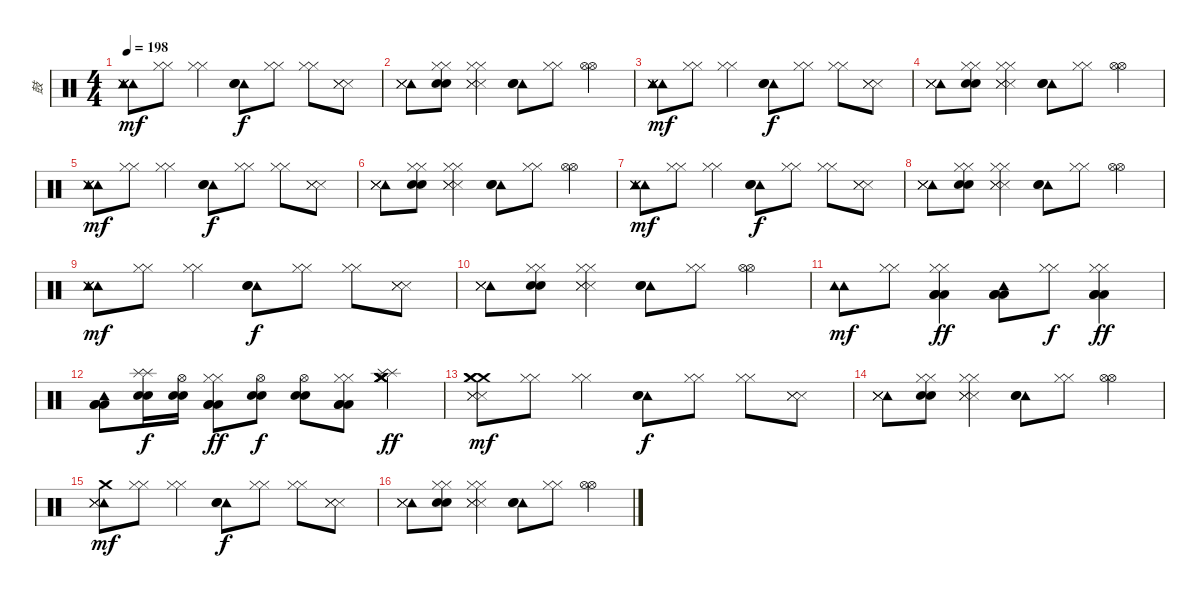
\track ("鼓" "鼓") {instrument percussion}
\staff {score}
\articulation defaults
\ts (4 4)
\tempo 198
\clef neutral
\ks c
("Tambourine (hit)" "Tambourine (hit)" "Metronome (hit)" "Metronome (hit)" "Metronome (hit)").8{dy mf} ("Hi-Hat (closed)" "Hi-Hat (closed)").8 ("Hi-Hat (closed)" "Hi-Hat (closed)").4 ("Tambourine (hit)" "Metronome (bell)" "Metronome (bell)").8{dy f} ("Hi-Hat (closed)" "Hi-Hat (closed)").8 ("Hi-Hat (closed)" "Hi-Hat (closed)").8 ("Metronome (hit)" "Metronome (hit)" "Metronome (hit)").8 |
("Tambourine (hit)" "Metronome (hit)" "Metronome (hit)" "Metronome (hit)").8 ("Hi-Hat (closed)" "Hi-Hat (closed)" "Metronome (bell)" "Metronome (bell)").8 ("Hi-Hat (closed)" "Hi-Hat (closed)" "Metronome (hit)" "Metronome (hit)" "Metronome (hit)").4 ("Tambourine (hit)" "Metronome (bell)" "Metronome (bell)").8 ("Hi-Hat (closed)" "Hi-Hat (closed)").8 ("Hi-Hat (open)" "Hi-Hat (open)").4 |
("Tambourine (hit)" "Tambourine (hit)" "Metronome (hit)" "Metronome (hit)" "Metronome (hit)").8{dy mf} ("Hi-Hat (closed)" "Hi-Hat (closed)").8 ("Hi-Hat (closed)" "Hi-Hat (closed)").4 ("Tambourine (hit)" "Metronome (bell)" "Metronome (bell)").8{dy f} ("Hi-Hat (closed)" "Hi-Hat (closed)").8 ("Hi-Hat (closed)" "Hi-Hat (closed)").8 ("Metronome (hit)" "Metronome (hit)" "Metronome (hit)").8 |
("Tambourine (hit)" "Metronome (hit)" "Metronome (hit)" "Metronome (hit)").8 ("Hi-Hat (closed)" "Hi-Hat (closed)" "Metronome (bell)" "Metronome (bell)").8 ("Hi-Hat (closed)" "Hi-Hat (closed)" "Metronome (hit)" "Metronome (hit)" "Metronome (hit)").4 ("Tambourine (hit)" "Metronome (bell)" "Metronome (bell)").8 ("Hi-Hat (closed)" "Hi-Hat (closed)").8 ("Hi-Hat (open)" "Hi-Hat (open)").4 |
("Tambourine (hit)" "Tambourine (hit)" "Metronome (hit)" "Metronome (hit)" "Metronome (hit)").8{dy mf} ("Hi-Hat (closed)" "Hi-Hat (closed)").8 ("Hi-Hat (closed)" "Hi-Hat (closed)").4 ("Tambourine (hit)" "Metronome (bell)" "Metronome (bell)").8{dy f} ("Hi-Hat (closed)" "Hi-Hat (closed)").8 ("Hi-Hat (closed)" "Hi-Hat (closed)").8 ("Metronome (hit)" "Metronome (hit)" "Metronome (hit)").8 |
("Tambourine (hit)" "Metronome (hit)" "Metronome (hit)" "Metronome (hit)").8 ("Hi-Hat (closed)" "Hi-Hat (closed)" "Metronome (bell)" "Metronome (bell)").8 ("Hi-Hat (closed)" "Hi-Hat (closed)" "Metronome (hit)" "Metronome (hit)" "Metronome (hit)").4 ("Tambourine (hit)" "Metronome (bell)" "Metronome (bell)").8 ("Hi-Hat (closed)" "Hi-Hat (closed)").8 ("Hi-Hat (open)" "Hi-Hat (open)").4 |
("Tambourine (hit)" "Tambourine (hit)" "Metronome (hit)" "Metronome (hit)" "Metronome (hit)").8{dy mf} ("Hi-Hat (closed)" "Hi-Hat (closed)").8 ("Hi-Hat (closed)" "Hi-Hat (closed)").4 ("Tambourine (hit)" "Metronome (bell)" "Metronome (bell)").8{dy f} ("Hi-Hat (closed)" "Hi-Hat (closed)").8 ("Hi-Hat (closed)" "Hi-Hat (closed)").8 ("Metronome (hit)" "Metronome (hit)" "Metronome (hit)").8 |
("Tambourine (hit)" "Metronome (hit)" "Metronome (hit)" "Metronome (hit)").8 ("Hi-Hat (closed)" "Hi-Hat (closed)" "Metronome (bell)" "Metronome (bell)").8 ("Hi-Hat (closed)" "Hi-Hat (closed)" "Metronome (hit)" "Metronome (hit)" "Metronome (hit)").4 ("Tambourine (hit)" "Metronome (bell)" "Metronome (bell)").8 ("Hi-Hat (closed)" "Hi-Hat (closed)").8 ("Hi-Hat (open)" "Hi-Hat (open)").4 |
("Tambourine (hit)" "Tambourine (hit)" "Metronome (hit)" "Metronome (hit)" "Metronome (hit)").8{dy mf} ("Hi-Hat (closed)" "Hi-Hat (closed)").8 ("Hi-Hat (closed)" "Hi-Hat (closed)").4 ("Tambourine (hit)" "Metronome (bell)" "Metronome (bell)").8{dy f} ("Hi-Hat (closed)" "Hi-Hat (closed)").8 ("Hi-Hat (closed)" "Hi-Hat (closed)").8 ("Metronome (hit)" "Metronome (hit)" "Metronome (hit)").8 |
("Tambourine (hit)" "Metronome (hit)" "Metronome (hit)" "Metronome (hit)").8 ("Hi-Hat (closed)" "Hi-Hat (closed)" "Metronome (bell)" "Metronome (bell)").8 ("Hi-Hat (closed)" "Hi-Hat (closed)" "Metronome (hit)" "Metronome (hit)" "Metronome (hit)").4 ("Tambourine (hit)" "Metronome (bell)" "Metronome (bell)").8 ("Hi-Hat (closed)" "Hi-Hat (closed)").8 ("Hi-Hat (open)" "Hi-Hat (open)").4 |
("Tambourine (hit)" "Tambourine (hit)").8{dy mf} ("Hi-Hat (closed)" "Hi-Hat (closed)").8 ("Hi-Hat (closed)" "Hi-Hat (closed)" "Low Tom (hit)" "Low Tom (hit)" "Low Tom (hit)").4{dy ff} ("Tambourine (hit)" "Low Tom (hit)" "Low Tom (hit)" "Low Tom (hit)").8 ("Hi-Hat (closed)" "Hi-Hat (closed)").8{dy f} ("Hi-Hat (closed)" "Hi-Hat (closed)" "Low Tom (hit)" "Low Tom (hit)" "Low Tom (hit)").4{dy ff} |
("Tambourine (hit)" "Low Tom (hit)" "Low Tom (hit)" "Low Tom (hit)").8 ("Splash (hit)" "Splash (hit)" "Metronome (bell)" "Metronome (bell)").16{dy f} ("Hi-Hat (open)" "Metronome (bell)" "Metronome (bell)").16 ("Hi-Hat (closed)" "Hi-Hat (closed)" "Low Tom (hit)" "Low Tom (hit)" "Low Tom (hit)").8{dy ff} ("Hi-Hat (open)" "Metronome (bell)" "Metronome (bell)").8{dy f} ("Hi-Hat (open)" "Metronome (bell)" "Metronome (bell)").8 ("Hi-Hat (closed)" "Hi-Hat (closed)" "Low Floor Tom (hit)" "Low Floor Tom (hit)" "Low Floor Tom (hit)").8 ("Crash medium (hit)" "Splash (hit)" "Splash (hit)" "Crash medium (hit)" "Crash medium (hit)" "Crash medium (hit)").4{dy ff} |
("Crash medium (hit)" "Crash medium (hit)" "Metronome (hit)" "Metronome (hit)" "Metronome (hit)" "Crash medium (hit)").8{dy mf} ("Hi-Hat (closed)" "Hi-Hat (closed)").8 ("Hi-Hat (closed)" "Hi-Hat (closed)").4 ("Tambourine (hit)" "Metronome (bell)" "Metronome (bell)").8{dy f} ("Hi-Hat (closed)" "Hi-Hat (closed)").8 ("Hi-Hat (closed)" "Hi-Hat (closed)").8 ("Metronome (hit)" "Metronome (hit)" "Metronome (hit)").8 |
("Tambourine (hit)" "Metronome (hit)" "Metronome (hit)" "Metronome (hit)").8 ("Hi-Hat (closed)" "Hi-Hat (closed)" "Metronome (bell)" "Metronome (bell)").8 ("Hi-Hat (closed)" "Hi-Hat (closed)" "Metronome (hit)" "Metronome (hit)" "Metronome (hit)").4 ("Tambourine (hit)" "Metronome (bell)" "Metronome (bell)").8 ("Hi-Hat (closed)" "Hi-Hat (closed)").8 ("Hi-Hat (open)" "Hi-Hat (open)").4 |
("Tambourine (hit)" "Crash medium (hit)" "Metronome (hit)" "Metronome (hit)" "Metronome (hit)").8{dy mf} ("Hi-Hat (closed)" "Hi-Hat (closed)").8 ("Hi-Hat (closed)" "Hi-Hat (closed)").4 ("Tambourine (hit)" "Metronome (bell)" "Metronome (bell)").8{dy f} ("Hi-Hat (closed)" "Hi-Hat (closed)").8 ("Hi-Hat (closed)" "Hi-Hat (closed)").8 ("Metronome (hit)" "Metronome (hit)" "Metronome (hit)").8 |
("Tambourine (hit)" "Metronome (hit)" "Metronome (hit)" "Metronome (hit)").8 ("Hi-Hat (closed)" "Hi-Hat (closed)" "Metronome (bell)" "Metronome (bell)").8 ("Hi-Hat (closed)" "Hi-Hat (closed)" "Metronome (hit)" "Metronome (hit)" "Metronome (hit)").4 ("Tambourine (hit)" "Metronome (bell)" "Metronome (bell)").8 ("Hi-Hat (closed)" "Hi-Hat (closed)").8 ("Hi-Hat (open)" "Hi-Hat (open)").4
